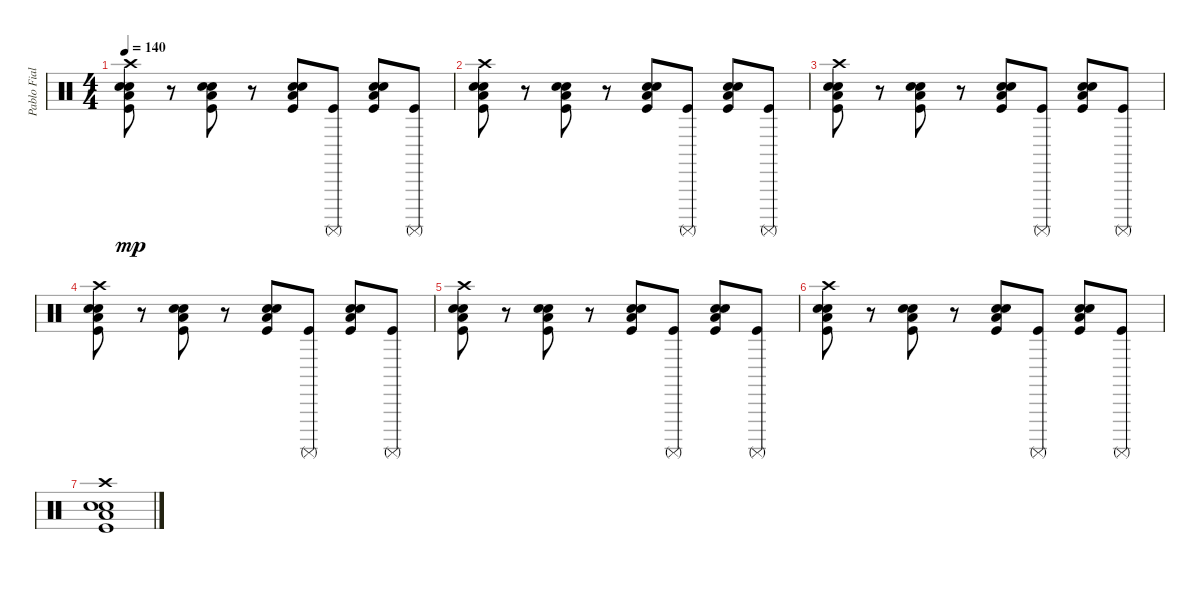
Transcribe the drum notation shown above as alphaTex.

\track ("Pablo Fiallo" "Pablo Fial") {instrument percussion}
\staff {score}
\articulation defaults
\ts (4 4)
\tempo 140
\clef neutral
\ks c
("Low Floor Tom (hit)" "Electric Snare (hit)" "Crash high (hit)" "Kick (hit)" "Snare (hit) 2").8{dy mp} r.8 ("Low Floor Tom (hit)" "Electric Snare (hit)" "Kick (hit)" "Snare (hit) 2").8 r.8 ("Low Floor Tom (hit)" "Electric Snare (hit)" "Kick (hit)" "Snare (hit) 2").8 ("Kick (hit)" "Surdo (mute)").8 ("Low Floor Tom (hit)" "Electric Snare (hit)" "Kick (hit)" "Snare (hit) 2").8 ("Kick (hit)" "Surdo (mute)").8 |
("Low Floor Tom (hit)" "Electric Snare (hit)" "Crash high (hit)" "Kick (hit)" "Snare (hit) 2").8 r.8 ("Low Floor Tom (hit)" "Electric Snare (hit)" "Kick (hit)" "Snare (hit) 2").8 r.8 ("Low Floor Tom (hit)" "Electric Snare (hit)" "Kick (hit)" "Snare (hit) 2").8 ("Kick (hit)" "Surdo (mute)").8 ("Low Floor Tom (hit)" "Electric Snare (hit)" "Kick (hit)" "Snare (hit) 2").8 ("Kick (hit)" "Surdo (mute)").8 |
("Low Floor Tom (hit)" "Electric Snare (hit)" "Crash high (hit)" "Kick (hit)" "Snare (hit) 2").8 r.8 ("Low Floor Tom (hit)" "Electric Snare (hit)" "Kick (hit)" "Snare (hit) 2").8 r.8 ("Low Floor Tom (hit)" "Electric Snare (hit)" "Kick (hit)" "Snare (hit) 2").8 ("Kick (hit)" "Surdo (mute)").8 ("Low Floor Tom (hit)" "Electric Snare (hit)" "Kick (hit)" "Snare (hit) 2").8 ("Kick (hit)" "Surdo (mute)").8 |
("Low Floor Tom (hit)" "Electric Snare (hit)" "Crash high (hit)" "Kick (hit)" "Snare (hit) 2").8 r.8 ("Low Floor Tom (hit)" "Electric Snare (hit)" "Kick (hit)" "Snare (hit) 2").8 r.8 ("Low Floor Tom (hit)" "Electric Snare (hit)" "Kick (hit)" "Snare (hit) 2").8 ("Kick (hit)" "Surdo (mute)").8 ("Low Floor Tom (hit)" "Electric Snare (hit)" "Kick (hit)" "Snare (hit) 2").8 ("Kick (hit)" "Surdo (mute)").8 |
("Low Floor Tom (hit)" "Electric Snare (hit)" "Crash high (hit)" "Kick (hit)" "Snare (hit) 2").8 r.8 ("Low Floor Tom (hit)" "Electric Snare (hit)" "Kick (hit)" "Snare (hit) 2").8 r.8 ("Low Floor Tom (hit)" "Electric Snare (hit)" "Kick (hit)" "Snare (hit) 2").8 ("Kick (hit)" "Surdo (mute)").8 ("Low Floor Tom (hit)" "Electric Snare (hit)" "Kick (hit)" "Snare (hit) 2").8 ("Kick (hit)" "Surdo (mute)").8 |
("Low Floor Tom (hit)" "Electric Snare (hit)" "Crash high (hit)" "Kick (hit)" "Snare (hit) 2").8 r.8 ("Low Floor Tom (hit)" "Electric Snare (hit)" "Kick (hit)" "Snare (hit) 2").8 r.8 ("Low Floor Tom (hit)" "Electric Snare (hit)" "Kick (hit)" "Snare (hit) 2").8 ("Kick (hit)" "Surdo (mute)").8 ("Low Floor Tom (hit)" "Electric Snare (hit)" "Kick (hit)" "Snare (hit) 2").8 ("Kick (hit)" "Surdo (mute)").8 |
("Low Floor Tom (hit)" "Electric Snare (hit)" "Crash high (hit)" "Kick (hit)" "Snare (hit) 2").1
